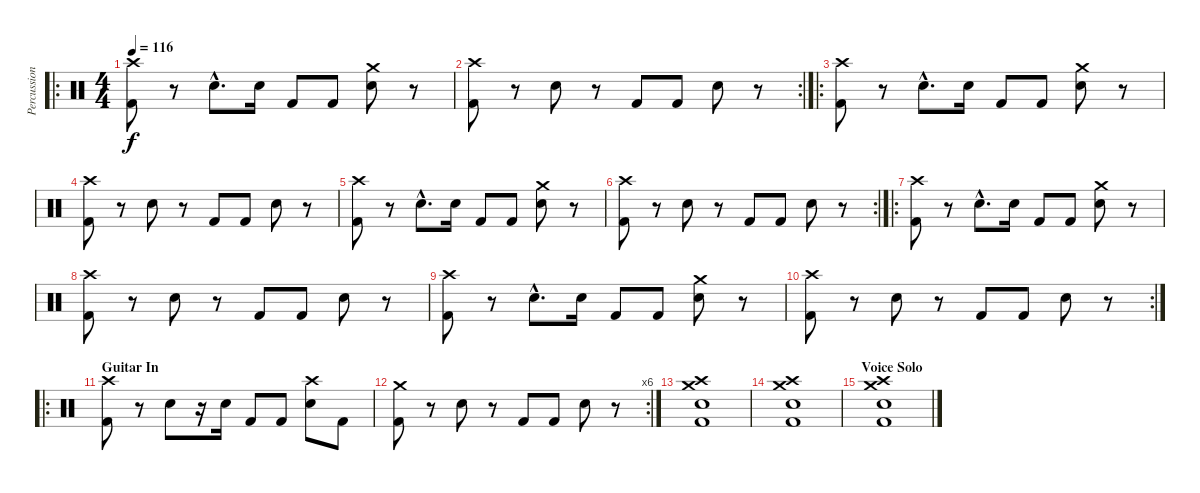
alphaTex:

\track ("Percussion" "Percussion") {instrument percussion}
\staff {score}
\articulation defaults
\ro
\ts (4 4)
\tempo 116
\clef neutral
\ks c
("Crash high (hit)" "Kick (hit) 2").8{dy f} r.8 "Electric Snare (hit)"{hac}.8{d} "Electric Snare (hit)".16 "Kick (hit) 2".8 "Kick (hit) 2".8 ("Crash medium (hit)" "Electric Snare (hit)").8 r.8 |
\rc 2
("Crash high (hit)" "Kick (hit) 2").8 r.8 "Electric Snare (hit)".8 r.8 "Kick (hit) 2".8 "Kick (hit) 2".8 "Electric Snare (hit)".8 r.8 |
\ro
("Crash high (hit)" "Kick (hit) 2").8 r.8 "Electric Snare (hit)"{hac}.8{d} "Electric Snare (hit)".16 "Kick (hit) 2".8 "Kick (hit) 2".8 ("Crash medium (hit)" "Electric Snare (hit)").8 r.8 |
("Crash high (hit)" "Kick (hit) 2").8 r.8 "Electric Snare (hit)".8 r.8 "Kick (hit) 2".8 "Kick (hit) 2".8 "Electric Snare (hit)".8 r.8 |
("Crash high (hit)" "Kick (hit) 2").8 r.8 "Electric Snare (hit)"{hac}.8{d} "Electric Snare (hit)".16 "Kick (hit) 2".8 "Kick (hit) 2".8 ("Crash medium (hit)" "Electric Snare (hit)").8 r.8 |
\rc 2
("Crash high (hit)" "Kick (hit) 2").8 r.8 "Electric Snare (hit)".8 r.8 "Kick (hit) 2".8 "Kick (hit) 2".8 "Electric Snare (hit)".8 r.8 |
\ro
("Crash high (hit)" "Kick (hit) 2").8 r.8 "Electric Snare (hit)"{hac}.8{d} "Electric Snare (hit)".16 "Kick (hit) 2".8 "Kick (hit) 2".8 ("Crash medium (hit)" "Electric Snare (hit)").8 r.8 |
("Crash high (hit)" "Kick (hit) 2").8 r.8 "Electric Snare (hit)".8 r.8 "Kick (hit) 2".8 "Kick (hit) 2".8 "Electric Snare (hit)".8 r.8 |
("Crash high (hit)" "Kick (hit) 2").8 r.8 "Electric Snare (hit)"{hac}.8{d} "Electric Snare (hit)".16 "Kick (hit) 2".8 "Kick (hit) 2".8 ("Crash medium (hit)" "Electric Snare (hit)").8 r.8 |
\rc 2
("Crash high (hit)" "Kick (hit) 2").8 r.8 "Electric Snare (hit)".8 r.8 "Kick (hit) 2".8 "Kick (hit) 2".8 "Electric Snare (hit)".8 r.8 |
\ro
\section ("" "Guitar In")
("Crash high (hit)" "Kick (hit) 2").8 r.8 "Electric Snare (hit)".8 r.16 "Electric Snare (hit)".16 "Kick (hit) 2".8 "Kick (hit) 2".8 ("Crash high (hit)" "Electric Snare (hit)").8 "Kick (hit) 2".8 |
\rc 6
("Crash medium (hit)" "Kick (hit) 2").8 r.8 "Electric Snare (hit)".8 r.8 "Kick (hit) 2".8 "Kick (hit) 2".8 "Electric Snare (hit)".8 r.8 |
("Crash high (hit)" "Crash medium (hit)" "Electric Snare (hit)" "Kick (hit) 2").1 |
("Crash high (hit)" "Crash medium (hit)" "Electric Snare (hit)" "Kick (hit) 2").1 |
\section ("" "Voice Solo")
("Crash high (hit)" "Crash medium (hit)" "Electric Snare (hit)" "Kick (hit) 2").1
